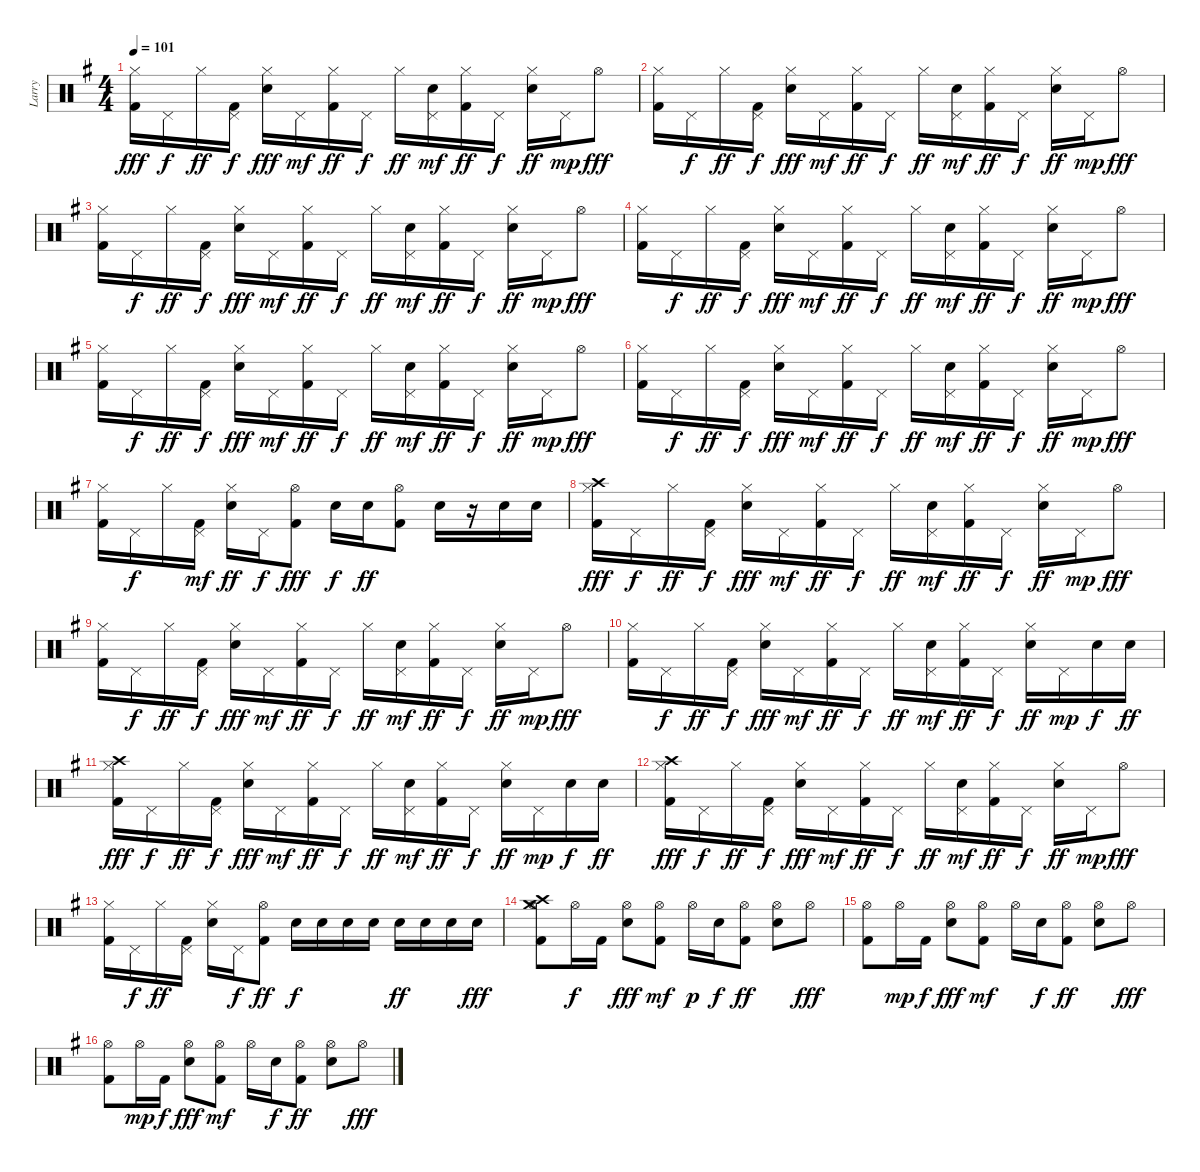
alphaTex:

\track ("Larry" "Larry") {instrument percussion}
\staff {score}
\articulation defaults
\ts (4 4)
\tempo 101
\clef neutral
\ks eminor
("Hi-Hat (closed)" "Kick (hit) 2").16{dy fff} "Pedal Hi-Hat (hit)".16{dy f} "Hi-Hat (closed)".16{dy ff} ("Kick (hit) 2" "Pedal Hi-Hat (hit)").16{dy f} ("Hi-Hat (closed)" "Snare (hit) 2").16{dy fff} "Pedal Hi-Hat (hit)".16{dy mf} ("Hi-Hat (closed)" "Kick (hit) 2").16{dy ff} "Pedal Hi-Hat (hit)".16{dy f} "Hi-Hat (closed)".16{dy ff} ("Snare (hit) 2" "Pedal Hi-Hat (hit)").16{dy mf} ("Hi-Hat (closed)" "Kick (hit) 2").16{dy ff} "Pedal Hi-Hat (hit)".16{dy f} ("Hi-Hat (closed)" "Snare (hit) 2").16{dy ff} "Pedal Hi-Hat (hit)".16{dy mp} "Hi-Hat (open)".8{dy fff} |
("Hi-Hat (closed)" "Kick (hit) 2").16 "Pedal Hi-Hat (hit)".16{dy f} "Hi-Hat (closed)".16{dy ff} ("Kick (hit) 2" "Pedal Hi-Hat (hit)").16{dy f} ("Hi-Hat (closed)" "Snare (hit) 2").16{dy fff} "Pedal Hi-Hat (hit)".16{dy mf} ("Hi-Hat (closed)" "Kick (hit) 2").16{dy ff} "Pedal Hi-Hat (hit)".16{dy f} "Hi-Hat (closed)".16{dy ff} ("Snare (hit) 2" "Pedal Hi-Hat (hit)").16{dy mf} ("Hi-Hat (closed)" "Kick (hit) 2").16{dy ff} "Pedal Hi-Hat (hit)".16{dy f} ("Hi-Hat (closed)" "Snare (hit) 2").16{dy ff} "Pedal Hi-Hat (hit)".16{dy mp} "Hi-Hat (open)".8{dy fff} |
("Hi-Hat (closed)" "Kick (hit) 2").16 "Pedal Hi-Hat (hit)".16{dy f} "Hi-Hat (closed)".16{dy ff} ("Kick (hit) 2" "Pedal Hi-Hat (hit)").16{dy f} ("Hi-Hat (closed)" "Snare (hit) 2").16{dy fff} "Pedal Hi-Hat (hit)".16{dy mf} ("Hi-Hat (closed)" "Kick (hit) 2").16{dy ff} "Pedal Hi-Hat (hit)".16{dy f} "Hi-Hat (closed)".16{dy ff} ("Snare (hit) 2" "Pedal Hi-Hat (hit)").16{dy mf} ("Hi-Hat (closed)" "Kick (hit) 2").16{dy ff} "Pedal Hi-Hat (hit)".16{dy f} ("Hi-Hat (closed)" "Snare (hit) 2").16{dy ff} "Pedal Hi-Hat (hit)".16{dy mp} "Hi-Hat (open)".8{dy fff} |
("Hi-Hat (closed)" "Kick (hit) 2").16 "Pedal Hi-Hat (hit)".16{dy f} "Hi-Hat (closed)".16{dy ff} ("Kick (hit) 2" "Pedal Hi-Hat (hit)").16{dy f} ("Hi-Hat (closed)" "Snare (hit) 2").16{dy fff} "Pedal Hi-Hat (hit)".16{dy mf} ("Hi-Hat (closed)" "Kick (hit) 2").16{dy ff} "Pedal Hi-Hat (hit)".16{dy f} "Hi-Hat (closed)".16{dy ff} ("Snare (hit) 2" "Pedal Hi-Hat (hit)").16{dy mf} ("Hi-Hat (closed)" "Kick (hit) 2").16{dy ff} "Pedal Hi-Hat (hit)".16{dy f} ("Hi-Hat (closed)" "Snare (hit) 2").16{dy ff} "Pedal Hi-Hat (hit)".16{dy mp} "Hi-Hat (open)".8{dy fff} |
("Hi-Hat (closed)" "Kick (hit) 2").16 "Pedal Hi-Hat (hit)".16{dy f} "Hi-Hat (closed)".16{dy ff} ("Kick (hit) 2" "Pedal Hi-Hat (hit)").16{dy f} ("Hi-Hat (closed)" "Snare (hit) 2").16{dy fff} "Pedal Hi-Hat (hit)".16{dy mf} ("Hi-Hat (closed)" "Kick (hit) 2").16{dy ff} "Pedal Hi-Hat (hit)".16{dy f} "Hi-Hat (closed)".16{dy ff} ("Snare (hit) 2" "Pedal Hi-Hat (hit)").16{dy mf} ("Hi-Hat (closed)" "Kick (hit) 2").16{dy ff} "Pedal Hi-Hat (hit)".16{dy f} ("Hi-Hat (closed)" "Snare (hit) 2").16{dy ff} "Pedal Hi-Hat (hit)".16{dy mp} "Hi-Hat (open)".8{dy fff} |
("Hi-Hat (closed)" "Kick (hit) 2").16 "Pedal Hi-Hat (hit)".16{dy f} "Hi-Hat (closed)".16{dy ff} ("Kick (hit) 2" "Pedal Hi-Hat (hit)").16{dy f} ("Hi-Hat (closed)" "Snare (hit) 2").16{dy fff} "Pedal Hi-Hat (hit)".16{dy mf} ("Hi-Hat (closed)" "Kick (hit) 2").16{dy ff} "Pedal Hi-Hat (hit)".16{dy f} "Hi-Hat (closed)".16{dy ff} ("Snare (hit) 2" "Pedal Hi-Hat (hit)").16{dy mf} ("Hi-Hat (closed)" "Kick (hit) 2").16{dy ff} "Pedal Hi-Hat (hit)".16{dy f} ("Hi-Hat (closed)" "Snare (hit) 2").16{dy ff} "Pedal Hi-Hat (hit)".16{dy mp} "Hi-Hat (open)".8{dy fff} |
("Kick (hit) 2" "Hi-Hat (closed)").16 "Pedal Hi-Hat (hit)".16{dy f} "Hi-Hat (closed)".16 ("Kick (hit) 2" "Pedal Hi-Hat (hit)").16{dy mf} ("Hi-Hat (closed)" "Snare (hit) 2").16{dy ff} "Pedal Hi-Hat (hit)".16{dy f} ("Kick (hit) 2" "Hi-Hat (open)").8{dy fff} "Snare (hit) 2".16{dy f} "Snare (hit) 2".16{dy ff} ("Kick (hit) 2" "Hi-Hat (open)").8 "Snare (hit) 2".16 r.16 "Snare (hit) 2".16 "Snare (hit) 2".16 |
("Hi-Hat (closed)" "Kick (hit) 2" "Crash high (hit)").16{dy fff} "Pedal Hi-Hat (hit)".16{dy f} "Hi-Hat (closed)".16{dy ff} ("Kick (hit) 2" "Pedal Hi-Hat (hit)").16{dy f} ("Hi-Hat (closed)" "Snare (hit) 2").16{dy fff} "Pedal Hi-Hat (hit)".16{dy mf} ("Hi-Hat (closed)" "Kick (hit) 2").16{dy ff} "Pedal Hi-Hat (hit)".16{dy f} "Hi-Hat (closed)".16{dy ff} ("Snare (hit) 2" "Pedal Hi-Hat (hit)").16{dy mf} ("Hi-Hat (closed)" "Kick (hit) 2").16{dy ff} "Pedal Hi-Hat (hit)".16{dy f} ("Hi-Hat (closed)" "Snare (hit) 2").16{dy ff} "Pedal Hi-Hat (hit)".16{dy mp} "Hi-Hat (open)".8{dy fff} |
("Hi-Hat (closed)" "Kick (hit) 2").16 "Pedal Hi-Hat (hit)".16{dy f} "Hi-Hat (closed)".16{dy ff} ("Kick (hit) 2" "Pedal Hi-Hat (hit)").16{dy f} ("Hi-Hat (closed)" "Snare (hit) 2").16{dy fff} "Pedal Hi-Hat (hit)".16{dy mf} ("Hi-Hat (closed)" "Kick (hit) 2").16{dy ff} "Pedal Hi-Hat (hit)".16{dy f} "Hi-Hat (closed)".16{dy ff} ("Snare (hit) 2" "Pedal Hi-Hat (hit)").16{dy mf} ("Hi-Hat (closed)" "Kick (hit) 2").16{dy ff} "Pedal Hi-Hat (hit)".16{dy f} ("Hi-Hat (closed)" "Snare (hit) 2").16{dy ff} "Pedal Hi-Hat (hit)".16{dy mp} "Hi-Hat (open)".8{dy fff} |
("Hi-Hat (closed)" "Kick (hit) 2").16 "Pedal Hi-Hat (hit)".16{dy f} "Hi-Hat (closed)".16{dy ff} ("Kick (hit) 2" "Pedal Hi-Hat (hit)").16{dy f} ("Hi-Hat (closed)" "Snare (hit) 2").16{dy fff} "Pedal Hi-Hat (hit)".16{dy mf} ("Hi-Hat (closed)" "Kick (hit) 2").16{dy ff} "Pedal Hi-Hat (hit)".16{dy f} "Hi-Hat (closed)".16{dy ff} ("Snare (hit) 2" "Pedal Hi-Hat (hit)").16{dy mf} ("Hi-Hat (closed)" "Kick (hit) 2").16{dy ff} "Pedal Hi-Hat (hit)".16{dy f} ("Hi-Hat (closed)" "Snare (hit) 2").16{dy ff} "Pedal Hi-Hat (hit)".16{dy mp} "Snare (hit) 2".16{dy f} "Snare (hit) 2".16{dy ff} |
("Hi-Hat (closed)" "Kick (hit) 2" "Crash high (hit)").16{dy fff} "Pedal Hi-Hat (hit)".16{dy f} "Hi-Hat (closed)".16{dy ff} ("Kick (hit) 2" "Pedal Hi-Hat (hit)").16{dy f} ("Hi-Hat (closed)" "Snare (hit) 2").16{dy fff} "Pedal Hi-Hat (hit)".16{dy mf} ("Hi-Hat (closed)" "Kick (hit) 2").16{dy ff} "Pedal Hi-Hat (hit)".16{dy f} "Hi-Hat (closed)".16{dy ff} ("Snare (hit) 2" "Pedal Hi-Hat (hit)").16{dy mf} ("Hi-Hat (closed)" "Kick (hit) 2").16{dy ff} "Pedal Hi-Hat (hit)".16{dy f} ("Hi-Hat (closed)" "Snare (hit) 2").16{dy ff} "Pedal Hi-Hat (hit)".16{dy mp} "Snare (hit) 2".16{dy f} "Snare (hit) 2".16{dy ff} |
("Hi-Hat (closed)" "Kick (hit) 2" "Crash high (hit)").16{dy fff} "Pedal Hi-Hat (hit)".16{dy f} "Hi-Hat (closed)".16{dy ff} ("Kick (hit) 2" "Pedal Hi-Hat (hit)").16{dy f} ("Hi-Hat (closed)" "Snare (hit) 2").16{dy fff} "Pedal Hi-Hat (hit)".16{dy mf} ("Hi-Hat (closed)" "Kick (hit) 2").16{dy ff} "Pedal Hi-Hat (hit)".16{dy f} "Hi-Hat (closed)".16{dy ff} ("Snare (hit) 2" "Pedal Hi-Hat (hit)").16{dy mf} ("Hi-Hat (closed)" "Kick (hit) 2").16{dy ff} "Pedal Hi-Hat (hit)".16{dy f} ("Hi-Hat (closed)" "Snare (hit) 2").16{dy ff} "Pedal Hi-Hat (hit)".16{dy mp} "Hi-Hat (open)".8{dy fff} |
("Hi-Hat (closed)" "Kick (hit) 2").16 "Pedal Hi-Hat (hit)".16{dy f} "Hi-Hat (closed)".16{dy ff} ("Kick (hit) 2" "Pedal Hi-Hat (hit)").16 ("Hi-Hat (closed)" "Snare (hit) 2").16 "Pedal Hi-Hat (hit)".16{dy f} ("Hi-Hat (open)" "Kick (hit) 2").8{dy ff} "Snare (hit) 2".16{dy f} "Snare (hit) 2".16 "Snare (hit) 2".16 "Snare (hit) 2".16 "Snare (hit) 2".16{dy ff} "Snare (hit) 2".16 "Snare (hit) 2".16 "Snare (hit) 2".16{dy fff} |
("Hi-Hat (open)" "Crash high (hit)" "Crash medium (hit)" "Kick (hit) 2").8 "Hi-Hat (open)".16{dy f} "Kick (hit) 2".16 ("Hi-Hat (open)" "Snare (hit) 2").8{dy fff} ("Hi-Hat (open)" "Kick (hit) 2").8{dy mf} "Hi-Hat (open)".16{dy p} "Snare (hit) 2".16{dy f} ("Hi-Hat (open)" "Kick (hit) 2").8{dy ff} ("Hi-Hat (open)" "Snare (hit) 2").8 "Hi-Hat (open)".8{dy fff} |
("Hi-Hat (open)" "Kick (hit) 2").8 "Hi-Hat (open)".16{dy mp} "Kick (hit) 2".16{dy f} ("Hi-Hat (open)" "Snare (hit) 2").8{dy fff} ("Hi-Hat (open)" "Kick (hit) 2").8{dy mf} "Hi-Hat (open)".16 "Snare (hit) 2".16{dy f} ("Hi-Hat (open)" "Kick (hit) 2").8{dy ff} ("Hi-Hat (open)" "Snare (hit) 2").8 "Hi-Hat (open)".8{dy fff} |
("Hi-Hat (open)" "Kick (hit) 2").8 "Hi-Hat (open)".16{dy mp} "Kick (hit) 2".16{dy f} ("Hi-Hat (open)" "Snare (hit) 2").8{dy fff} ("Hi-Hat (open)" "Kick (hit) 2").8{dy mf} "Hi-Hat (open)".16 "Snare (hit) 2".16{dy f} ("Hi-Hat (open)" "Kick (hit) 2").8{dy ff} ("Hi-Hat (open)" "Snare (hit) 2").8 "Hi-Hat (open)".8{dy fff}
